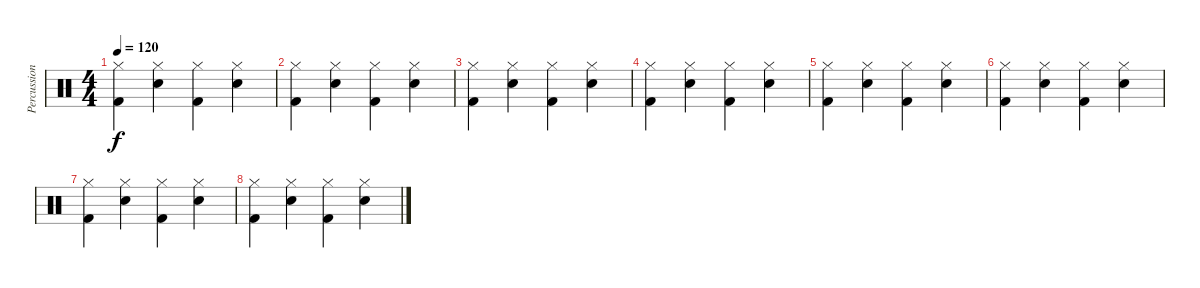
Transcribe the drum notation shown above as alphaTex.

\track ("Percussion" "Percussion") {instrument percussion}
\staff {score}
\articulation defaults
\ts (4 4)
\tempo 120
\clef neutral
\ks c
("Hi-Hat (closed)" "Kick (hit) 2").4{dy f} ("Hi-Hat (closed)" "Electric Snare (hit)").4 ("Hi-Hat (closed)" "Kick (hit) 2").4 ("Hi-Hat (closed)" "Electric Snare (hit)").4 |
("Hi-Hat (closed)" "Kick (hit) 2").4 ("Hi-Hat (closed)" "Electric Snare (hit)").4 ("Hi-Hat (closed)" "Kick (hit) 2").4 ("Hi-Hat (closed)" "Electric Snare (hit)").4 |
("Hi-Hat (closed)" "Kick (hit) 2").4 ("Hi-Hat (closed)" "Electric Snare (hit)").4 ("Hi-Hat (closed)" "Kick (hit) 2").4 ("Hi-Hat (closed)" "Electric Snare (hit)").4 |
("Hi-Hat (closed)" "Kick (hit) 2").4 ("Hi-Hat (closed)" "Electric Snare (hit)").4 ("Hi-Hat (closed)" "Kick (hit) 2").4 ("Hi-Hat (closed)" "Electric Snare (hit)").4 |
("Hi-Hat (closed)" "Kick (hit) 2").4 ("Hi-Hat (closed)" "Electric Snare (hit)").4 ("Hi-Hat (closed)" "Kick (hit) 2").4 ("Hi-Hat (closed)" "Electric Snare (hit)").4 |
("Hi-Hat (closed)" "Kick (hit) 2").4 ("Hi-Hat (closed)" "Electric Snare (hit)").4 ("Hi-Hat (closed)" "Kick (hit) 2").4 ("Hi-Hat (closed)" "Electric Snare (hit)").4 |
("Hi-Hat (closed)" "Kick (hit) 2").4 ("Hi-Hat (closed)" "Electric Snare (hit)").4 ("Hi-Hat (closed)" "Kick (hit) 2").4 ("Hi-Hat (closed)" "Electric Snare (hit)").4 |
("Hi-Hat (closed)" "Kick (hit) 2").4 ("Hi-Hat (closed)" "Electric Snare (hit)").4 ("Hi-Hat (closed)" "Kick (hit) 2").4 ("Hi-Hat (closed)" "Electric Snare (hit)").4
